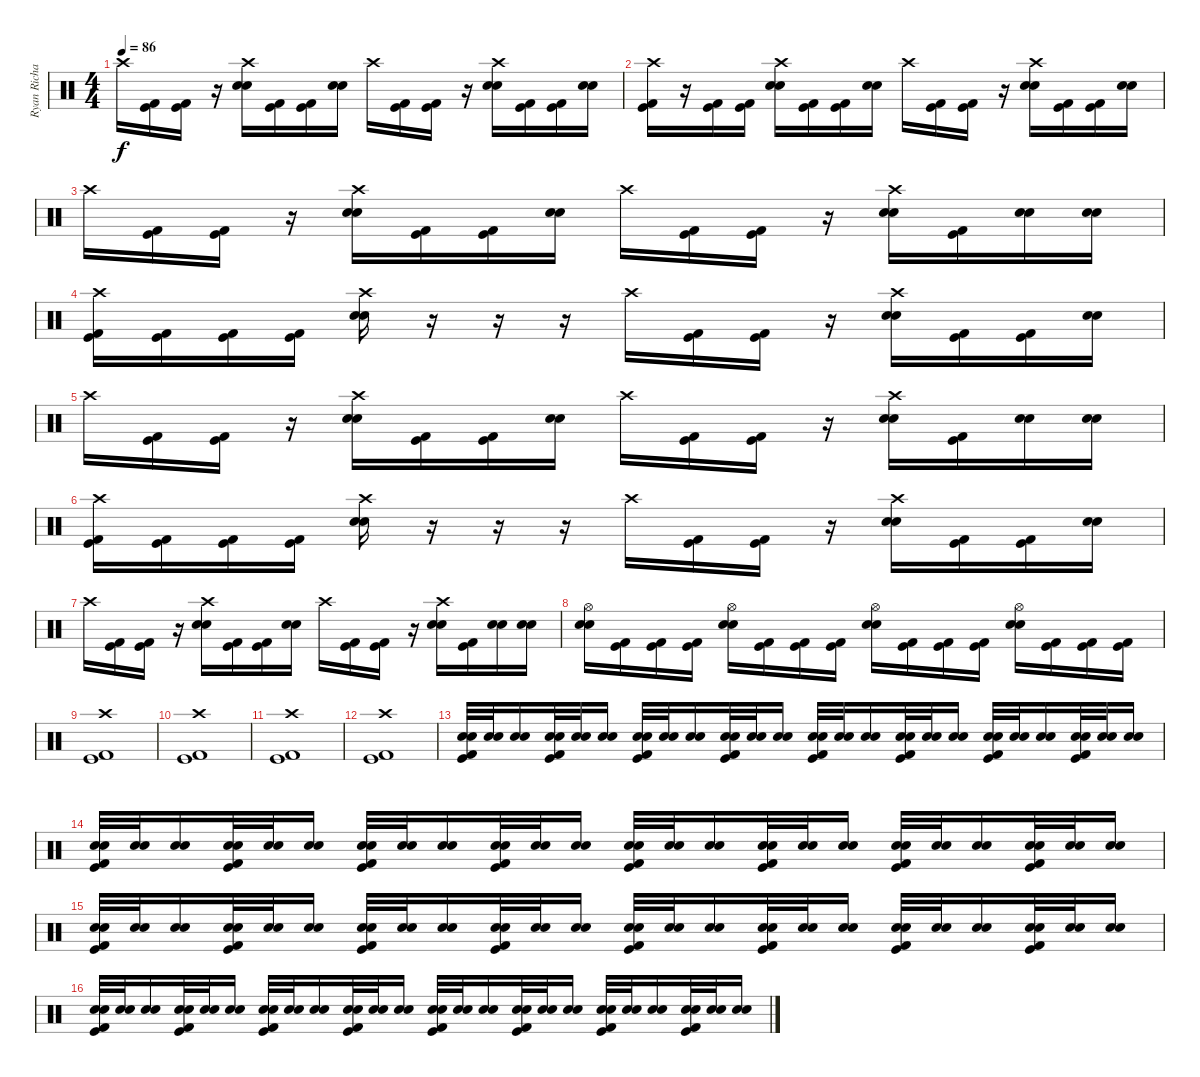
\track ("Ryan Richards" "Ryan Richa") {instrument percussion}
\staff {score}
\articulation defaults
\ts (4 4)
\tempo 86
\clef neutral
\ks c "Crash high (hit)".16{dy f}
("Kick (hit)" "Kick (hit) 2").16 ("Kick (hit)" "Kick (hit) 2").16 r.16 ("Snare (hit) 2" "Crash high (hit)" "Electric Snare (hit)").16 ("Kick (hit)" "Kick (hit) 2").16 ("Kick (hit)" "Kick (hit) 2").16 ("Snare (hit) 2" "Electric Snare (hit)").16 "Crash high (hit)".16 ("Kick (hit)" "Kick (hit) 2").16 ("Kick (hit)" "Kick (hit) 2").16 r.16 ("Snare (hit) 2" "Crash high (hit)" "Electric Snare (hit)").16 ("Kick (hit)" "Kick (hit) 2").16 ("Kick (hit)" "Kick (hit) 2").16 ("Snare (hit) 2" "Electric Snare (hit)").16 |
("Kick (hit)" "Crash high (hit)" "Kick (hit) 2").16 r.16 ("Kick (hit)" "Kick (hit) 2").16 ("Kick (hit)" "Kick (hit) 2").16 ("Snare (hit) 2" "Crash high (hit)" "Electric Snare (hit)").16 ("Kick (hit)" "Kick (hit) 2").16 ("Kick (hit)" "Kick (hit) 2").16 ("Snare (hit) 2" "Electric Snare (hit)").16 "Crash high (hit)".16 ("Kick (hit)" "Kick (hit) 2").16 ("Kick (hit)" "Kick (hit) 2").16 r.16 ("Snare (hit) 2" "Crash high (hit)" "Electric Snare (hit)").16 ("Kick (hit)" "Kick (hit) 2").16 ("Kick (hit)" "Kick (hit) 2").16 ("Snare (hit) 2" "Electric Snare (hit)").16 |
"Crash high (hit)".16 ("Kick (hit)" "Kick (hit) 2").16 ("Kick (hit)" "Kick (hit) 2").16 r.16 ("Snare (hit) 2" "Crash high (hit)" "Electric Snare (hit)").16 ("Kick (hit)" "Kick (hit) 2").16 ("Kick (hit)" "Kick (hit) 2").16 ("Snare (hit) 2" "Electric Snare (hit)").16 "Crash high (hit)".16 ("Kick (hit)" "Kick (hit) 2").16 ("Kick (hit)" "Kick (hit) 2").16 r.16 ("Snare (hit) 2" "Crash high (hit)" "Electric Snare (hit)").16 ("Kick (hit)" "Kick (hit) 2").16 ("Snare (hit) 2" "Electric Snare (hit)").16 ("Snare (hit) 2" "Electric Snare (hit)").16 |
("Kick (hit)" "Crash high (hit)" "Kick (hit) 2").16 ("Kick (hit)" "Kick (hit) 2").16 ("Kick (hit)" "Kick (hit) 2").16 ("Kick (hit)" "Kick (hit) 2").16 ("Snare (hit) 2" "Crash high (hit)" "Electric Snare (hit)").16 r.16 r.16 r.16 "Crash high (hit)".16 ("Kick (hit)" "Kick (hit) 2").16 ("Kick (hit)" "Kick (hit) 2").16 r.16 ("Snare (hit) 2" "Crash high (hit)" "Electric Snare (hit)").16 ("Kick (hit)" "Kick (hit) 2").16 ("Kick (hit)" "Kick (hit) 2").16 ("Snare (hit) 2" "Electric Snare (hit)").16 |
"Crash high (hit)".16 ("Kick (hit)" "Kick (hit) 2").16 ("Kick (hit)" "Kick (hit) 2").16 r.16 ("Snare (hit) 2" "Crash high (hit)" "Electric Snare (hit)").16 ("Kick (hit)" "Kick (hit) 2").16 ("Kick (hit)" "Kick (hit) 2").16 ("Snare (hit) 2" "Electric Snare (hit)").16 "Crash high (hit)".16 ("Kick (hit)" "Kick (hit) 2").16 ("Kick (hit)" "Kick (hit) 2").16 r.16 ("Snare (hit) 2" "Crash high (hit)" "Electric Snare (hit)").16 ("Kick (hit)" "Kick (hit) 2").16 ("Snare (hit) 2" "Electric Snare (hit)").16 ("Snare (hit) 2" "Electric Snare (hit)").16 |
("Kick (hit)" "Crash high (hit)" "Kick (hit) 2").16 ("Kick (hit)" "Kick (hit) 2").16 ("Kick (hit)" "Kick (hit) 2").16 ("Kick (hit)" "Kick (hit) 2").16 ("Snare (hit) 2" "Crash high (hit)" "Electric Snare (hit)").16 r.16 r.16 r.16 "Crash high (hit)".16 ("Kick (hit)" "Kick (hit) 2").16 ("Kick (hit)" "Kick (hit) 2").16 r.16 ("Snare (hit) 2" "Crash high (hit)" "Electric Snare (hit)").16 ("Kick (hit)" "Kick (hit) 2").16 ("Kick (hit)" "Kick (hit) 2").16 ("Snare (hit) 2" "Electric Snare (hit)").16 |
"Crash high (hit)".16 ("Kick (hit)" "Kick (hit) 2").16 ("Kick (hit)" "Kick (hit) 2").16 r.16 ("Snare (hit) 2" "Crash high (hit)" "Electric Snare (hit)").16 ("Kick (hit)" "Kick (hit) 2").16 ("Kick (hit)" "Kick (hit) 2").16 ("Snare (hit) 2" "Electric Snare (hit)").16 "Crash high (hit)".16 ("Kick (hit)" "Kick (hit) 2").16 ("Kick (hit)" "Kick (hit) 2").16 r.16 ("Snare (hit) 2" "Crash high (hit)" "Electric Snare (hit)").16 ("Kick (hit)" "Kick (hit) 2").16 ("Snare (hit) 2" "Electric Snare (hit)").16 ("Snare (hit) 2" "Electric Snare (hit)").16 |
("Snare (hit) 2" "Hi-Hat (open)" "Electric Snare (hit)").16 ("Kick (hit)" "Kick (hit) 2").16 ("Kick (hit)" "Kick (hit) 2").16 ("Kick (hit)" "Kick (hit) 2").16 ("Snare (hit) 2" "Hi-Hat (open)" "Electric Snare (hit)").16 ("Kick (hit)" "Kick (hit) 2").16 ("Kick (hit)" "Kick (hit) 2").16 ("Kick (hit)" "Kick (hit) 2").16 ("Snare (hit) 2" "Hi-Hat (open)" "Electric Snare (hit)").16 ("Kick (hit)" "Kick (hit) 2").16 ("Kick (hit)" "Kick (hit) 2").16 ("Kick (hit)" "Kick (hit) 2").16 ("Snare (hit) 2" "Hi-Hat (open)" "Electric Snare (hit)").16 ("Kick (hit)" "Kick (hit) 2").16 ("Kick (hit)" "Kick (hit) 2").16 ("Kick (hit)" "Kick (hit) 2").16 |
("Kick (hit)" "Crash high (hit)" "Kick (hit) 2").1 |
("Kick (hit)" "Crash high (hit)" "Kick (hit) 2").1 |
("Kick (hit)" "Crash high (hit)" "Kick (hit) 2").1 |
("Kick (hit)" "Crash high (hit)" "Kick (hit) 2").1 |
("Kick (hit)" "Snare (hit) 2" "Electric Snare (hit)" "Kick (hit) 2").32 ("Snare (hit) 2" "Electric Snare (hit)").32 ("Snare (hit) 2" "Electric Snare (hit)").16 ("Kick (hit)" "Snare (hit) 2" "Electric Snare (hit)" "Kick (hit) 2").32 ("Snare (hit) 2" "Electric Snare (hit)").32 ("Snare (hit) 2" "Electric Snare (hit)").16 ("Kick (hit)" "Snare (hit) 2" "Electric Snare (hit)" "Kick (hit) 2").32 ("Snare (hit) 2" "Electric Snare (hit)").32 ("Snare (hit) 2" "Electric Snare (hit)").16 ("Kick (hit)" "Snare (hit) 2" "Electric Snare (hit)" "Kick (hit) 2").32 ("Snare (hit) 2" "Electric Snare (hit)").32 ("Snare (hit) 2" "Electric Snare (hit)").16 ("Kick (hit)" "Snare (hit) 2" "Electric Snare (hit)" "Kick (hit) 2").32 ("Snare (hit) 2" "Electric Snare (hit)").32 ("Snare (hit) 2" "Electric Snare (hit)").16 ("Kick (hit)" "Snare (hit) 2" "Electric Snare (hit)" "Kick (hit) 2").32 ("Snare (hit) 2" "Electric Snare (hit)").32 ("Snare (hit) 2" "Electric Snare (hit)").16 ("Kick (hit)" "Snare (hit) 2" "Electric Snare (hit)" "Kick (hit) 2").32 ("Snare (hit) 2" "Electric Snare (hit)").32 ("Snare (hit) 2" "Electric Snare (hit)").16 ("Kick (hit)" "Snare (hit) 2" "Electric Snare (hit)" "Kick (hit) 2").32 ("Snare (hit) 2" "Electric Snare (hit)").32 ("Snare (hit) 2" "Electric Snare (hit)").16 |
("Kick (hit)" "Snare (hit) 2" "Electric Snare (hit)" "Kick (hit) 2").32 ("Snare (hit) 2" "Electric Snare (hit)").32 ("Snare (hit) 2" "Electric Snare (hit)").16 ("Kick (hit)" "Snare (hit) 2" "Electric Snare (hit)" "Kick (hit) 2").32 ("Snare (hit) 2" "Electric Snare (hit)").32 ("Snare (hit) 2" "Electric Snare (hit)").16 ("Kick (hit)" "Snare (hit) 2" "Electric Snare (hit)" "Kick (hit) 2").32 ("Snare (hit) 2" "Electric Snare (hit)").32 ("Snare (hit) 2" "Electric Snare (hit)").16 ("Kick (hit)" "Snare (hit) 2" "Electric Snare (hit)" "Kick (hit) 2").32 ("Snare (hit) 2" "Electric Snare (hit)").32 ("Snare (hit) 2" "Electric Snare (hit)").16 ("Kick (hit)" "Snare (hit) 2" "Electric Snare (hit)" "Kick (hit) 2").32 ("Snare (hit) 2" "Electric Snare (hit)").32 ("Snare (hit) 2" "Electric Snare (hit)").16 ("Kick (hit)" "Snare (hit) 2" "Electric Snare (hit)" "Kick (hit) 2").32 ("Snare (hit) 2" "Electric Snare (hit)").32 ("Snare (hit) 2" "Electric Snare (hit)").16 ("Kick (hit)" "Snare (hit) 2" "Electric Snare (hit)" "Kick (hit) 2").32 ("Snare (hit) 2" "Electric Snare (hit)").32 ("Snare (hit) 2" "Electric Snare (hit)").16 ("Kick (hit)" "Snare (hit) 2" "Electric Snare (hit)" "Kick (hit) 2").32 ("Snare (hit) 2" "Electric Snare (hit)").32 ("Snare (hit) 2" "Electric Snare (hit)").16 |
("Kick (hit)" "Snare (hit) 2" "Electric Snare (hit)" "Kick (hit) 2").32 ("Snare (hit) 2" "Electric Snare (hit)").32 ("Snare (hit) 2" "Electric Snare (hit)").16 ("Kick (hit)" "Snare (hit) 2" "Electric Snare (hit)" "Kick (hit) 2").32 ("Snare (hit) 2" "Electric Snare (hit)").32 ("Snare (hit) 2" "Electric Snare (hit)").16 ("Kick (hit)" "Snare (hit) 2" "Electric Snare (hit)" "Kick (hit) 2").32 ("Snare (hit) 2" "Electric Snare (hit)").32 ("Snare (hit) 2" "Electric Snare (hit)").16 ("Kick (hit)" "Snare (hit) 2" "Electric Snare (hit)" "Kick (hit) 2").32 ("Snare (hit) 2" "Electric Snare (hit)").32 ("Snare (hit) 2" "Electric Snare (hit)").16 ("Kick (hit)" "Snare (hit) 2" "Electric Snare (hit)" "Kick (hit) 2").32 ("Snare (hit) 2" "Electric Snare (hit)").32 ("Snare (hit) 2" "Electric Snare (hit)").16 ("Kick (hit)" "Snare (hit) 2" "Electric Snare (hit)" "Kick (hit) 2").32 ("Snare (hit) 2" "Electric Snare (hit)").32 ("Snare (hit) 2" "Electric Snare (hit)").16 ("Kick (hit)" "Snare (hit) 2" "Electric Snare (hit)" "Kick (hit) 2").32 ("Snare (hit) 2" "Electric Snare (hit)").32 ("Snare (hit) 2" "Electric Snare (hit)").16 ("Kick (hit)" "Snare (hit) 2" "Electric Snare (hit)" "Kick (hit) 2").32 ("Snare (hit) 2" "Electric Snare (hit)").32 ("Snare (hit) 2" "Electric Snare (hit)").16 |
("Kick (hit)" "Snare (hit) 2" "Electric Snare (hit)" "Kick (hit) 2").32 ("Snare (hit) 2" "Electric Snare (hit)").32 ("Snare (hit) 2" "Electric Snare (hit)").16 ("Kick (hit)" "Snare (hit) 2" "Electric Snare (hit)" "Kick (hit) 2").32 ("Snare (hit) 2" "Electric Snare (hit)").32 ("Snare (hit) 2" "Electric Snare (hit)").16 ("Kick (hit)" "Snare (hit) 2" "Electric Snare (hit)" "Kick (hit) 2").32 ("Snare (hit) 2" "Electric Snare (hit)").32 ("Snare (hit) 2" "Electric Snare (hit)").16 ("Kick (hit)" "Snare (hit) 2" "Electric Snare (hit)" "Kick (hit) 2").32 ("Snare (hit) 2" "Electric Snare (hit)").32 ("Snare (hit) 2" "Electric Snare (hit)").16 ("Kick (hit)" "Snare (hit) 2" "Electric Snare (hit)" "Kick (hit) 2").32 ("Snare (hit) 2" "Electric Snare (hit)").32 ("Snare (hit) 2" "Electric Snare (hit)").16 ("Kick (hit)" "Snare (hit) 2" "Electric Snare (hit)" "Kick (hit) 2").32 ("Snare (hit) 2" "Electric Snare (hit)").32 ("Snare (hit) 2" "Electric Snare (hit)").16 ("Kick (hit)" "Snare (hit) 2" "Electric Snare (hit)" "Kick (hit) 2").32 ("Snare (hit) 2" "Electric Snare (hit)").32 ("Snare (hit) 2" "Electric Snare (hit)").16 ("Kick (hit)" "Snare (hit) 2" "Electric Snare (hit)" "Kick (hit) 2").32 ("Snare (hit) 2" "Electric Snare (hit)").32 ("Snare (hit) 2" "Electric Snare (hit)").16
